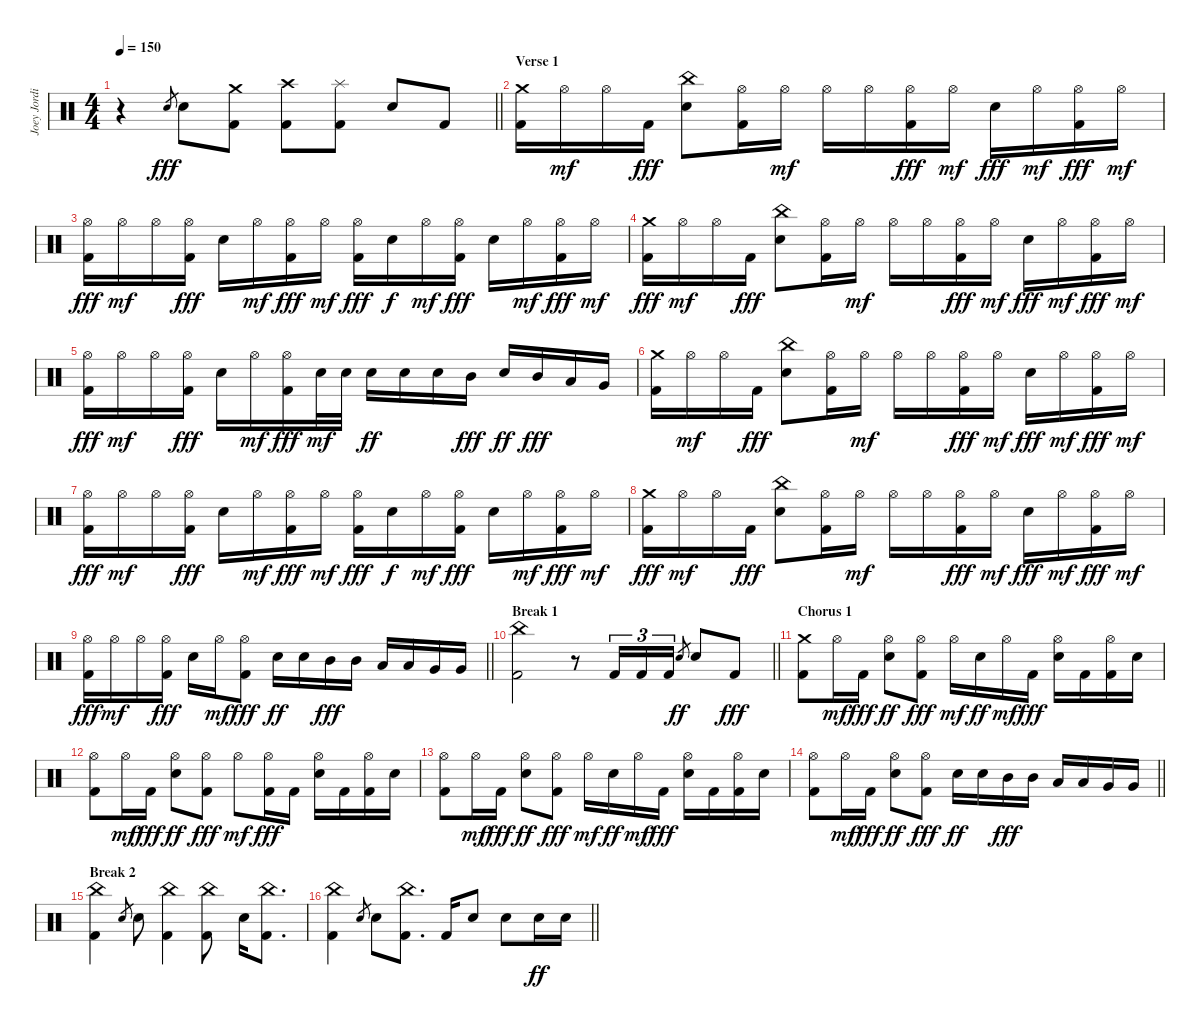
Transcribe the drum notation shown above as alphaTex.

\track ("Joey Jordison" "Joey Jordi") {instrument percussion}
\staff {score}
\articulation defaults
\ts (4 4)
\tempo 150
\clef neutral
\barLineRight lightlight
\ks c
r.4{dy fff} "Electric Snare (hit)".8{gr} "Electric Snare (hit)".8 ("Crash medium (hit)" "Kick (hit) 2").8 ("Crash high (hit)" "Kick (hit) 2").8 ("Splash (hit)" "Kick (hit) 2").8 "Electric Snare (hit)".8 "Kick (hit) 2".8 |
\section ("" "Verse 1")
("Crash medium (hit)" "Kick (hit) 2").16 "Hi-Hat (open)".16{dy mf} "Hi-Hat (open)".16 "Kick (hit) 2".16{dy fff} ("China (hit)" "Electric Snare (hit)").8 ("Hi-Hat (open)" "Kick (hit) 2").16 "Hi-Hat (open)".16{dy mf} "Hi-Hat (open)".16 "Hi-Hat (open)".16 ("Hi-Hat (open)" "Kick (hit) 2").16{dy fff} "Hi-Hat (open)".16{dy mf} "Electric Snare (hit)".16{dy fff} "Hi-Hat (open)".16{dy mf} ("Hi-Hat (open)" "Kick (hit) 2").16{dy fff} "Hi-Hat (open)".16{dy mf} |
("Hi-Hat (open)" "Kick (hit) 2").16{dy fff} "Hi-Hat (open)".16{dy mf} "Hi-Hat (open)".16 ("Hi-Hat (open)" "Kick (hit) 2").16{dy fff} "Electric Snare (hit)".16 "Hi-Hat (open)".16{dy mf} ("Hi-Hat (open)" "Kick (hit) 2").16{dy fff} "Hi-Hat (open)".16{dy mf} ("Hi-Hat (open)" "Kick (hit) 2").16{dy fff} "Electric Snare (hit)".16{dy f} "Hi-Hat (open)".16{dy mf} ("Hi-Hat (open)" "Kick (hit) 2").16{dy fff} "Electric Snare (hit)".16 "Hi-Hat (open)".16{dy mf} ("Hi-Hat (open)" "Kick (hit) 2").16{dy fff} "Hi-Hat (open)".16{dy mf} |
("Crash medium (hit)" "Kick (hit) 2").16{dy fff} "Hi-Hat (open)".16{dy mf} "Hi-Hat (open)".16 "Kick (hit) 2".16{dy fff} ("China (hit)" "Electric Snare (hit)").8 ("Hi-Hat (open)" "Kick (hit) 2").16 "Hi-Hat (open)".16{dy mf} "Hi-Hat (open)".16 "Hi-Hat (open)".16 ("Hi-Hat (open)" "Kick (hit) 2").16{dy fff} "Hi-Hat (open)".16{dy mf} "Electric Snare (hit)".16{dy fff} "Hi-Hat (open)".16{dy mf} ("Hi-Hat (open)" "Kick (hit) 2").16{dy fff} "Hi-Hat (open)".16{dy mf} |
("Hi-Hat (open)" "Kick (hit) 2").16{dy fff} "Hi-Hat (open)".16{dy mf} "Hi-Hat (open)".16 ("Hi-Hat (open)" "Kick (hit) 2").16{dy fff} "Electric Snare (hit)".16 "Hi-Hat (open)".16{dy mf} ("Hi-Hat (open)" "Kick (hit) 2").16{dy fff} "Electric Snare (hit)".32{dy mf} "Electric Snare (hit)".32 "Electric Snare (hit)".16{dy ff} "Electric Snare (hit)".16 "Electric Snare (hit)".16 "Mid Tom (hit)".16{dy fff} "Electric Snare (hit)".16{dy ff} "Mid Tom (hit)".16{dy fff} "Low Tom (hit)".16 "Very Low Tom (hit)".16 |
("Crash medium (hit)" "Kick (hit) 2").16 "Hi-Hat (open)".16{dy mf} "Hi-Hat (open)".16 "Kick (hit) 2".16{dy fff} ("China (hit)" "Electric Snare (hit)").8 ("Hi-Hat (open)" "Kick (hit) 2").16 "Hi-Hat (open)".16{dy mf} "Hi-Hat (open)".16 "Hi-Hat (open)".16 ("Hi-Hat (open)" "Kick (hit) 2").16{dy fff} "Hi-Hat (open)".16{dy mf} "Electric Snare (hit)".16{dy fff} "Hi-Hat (open)".16{dy mf} ("Hi-Hat (open)" "Kick (hit) 2").16{dy fff} "Hi-Hat (open)".16{dy mf} |
("Hi-Hat (open)" "Kick (hit) 2").16{dy fff} "Hi-Hat (open)".16{dy mf} "Hi-Hat (open)".16 ("Hi-Hat (open)" "Kick (hit) 2").16{dy fff} "Electric Snare (hit)".16 "Hi-Hat (open)".16{dy mf} ("Hi-Hat (open)" "Kick (hit) 2").16{dy fff} "Hi-Hat (open)".16{dy mf} ("Hi-Hat (open)" "Kick (hit) 2").16{dy fff} "Electric Snare (hit)".16{dy f} "Hi-Hat (open)".16{dy mf} ("Hi-Hat (open)" "Kick (hit) 2").16{dy fff} "Electric Snare (hit)".16 "Hi-Hat (open)".16{dy mf} ("Hi-Hat (open)" "Kick (hit) 2").16{dy fff} "Hi-Hat (open)".16{dy mf} |
("Crash medium (hit)" "Kick (hit) 2").16{dy fff} "Hi-Hat (open)".16{dy mf} "Hi-Hat (open)".16 "Kick (hit) 2".16{dy fff} ("China (hit)" "Electric Snare (hit)").8 ("Hi-Hat (open)" "Kick (hit) 2").16 "Hi-Hat (open)".16{dy mf} "Hi-Hat (open)".16 "Hi-Hat (open)".16 ("Hi-Hat (open)" "Kick (hit) 2").16{dy fff} "Hi-Hat (open)".16{dy mf} "Electric Snare (hit)".16{dy fff} "Hi-Hat (open)".16{dy mf} ("Hi-Hat (open)" "Kick (hit) 2").16{dy fff} "Hi-Hat (open)".16{dy mf} |
\barLineRight lightlight
("Hi-Hat (open)" "Kick (hit) 2").16{dy fff} "Hi-Hat (open)".16{dy mf} "Hi-Hat (open)".16 ("Hi-Hat (open)" "Kick (hit) 2").16{dy fff} "Electric Snare (hit)".16 "Hi-Hat (open)".16{dy mf} ("Hi-Hat (open)" "Kick (hit) 2").8{dy fff} "Electric Snare (hit)".16{dy ff} "Electric Snare (hit)".16 "Mid Tom (hit)".16{dy fff} "Mid Tom (hit)".16 "Low Tom (hit)".16 "Low Tom (hit)".16 "Very Low Tom (hit)".16 "Very Low Tom (hit)".16 |
\section ("" "Break 1")
\barLineRight lightlight
("China (hit)" "Kick (hit) 2").2 r.8 "Kick (hit) 2".16{tu (3 2)} "Kick (hit) 2".16{tu (3 2)} "Kick (hit) 2".16{tu (3 2)} "Electric Snare (hit)".8{gr dy ff} "Electric Snare (hit)".8 "Kick (hit) 2".8{dy fff} |
\section ("" "Chorus 1")
("Crash medium (hit)" "Kick (hit) 2").8 "Hi-Hat (open)".16{dy mf} "Kick (hit) 2".16{dy fff} ("Hi-Hat (open)" "Electric Snare (hit)").8{dy ff} ("Hi-Hat (open)" "Kick (hit) 2").8{dy fff} "Hi-Hat (open)".16{dy mf} "Electric Snare (hit)".16{dy ff} "Hi-Hat (open)".16{dy mf} "Kick (hit) 2".16{dy fff} ("Hi-Hat (open)" "Electric Snare (hit)").16 "Kick (hit) 2".16 ("Hi-Hat (open)" "Kick (hit) 2").16 "Electric Snare (hit)".16 |
("Hi-Hat (open)" "Kick (hit) 2").8 "Hi-Hat (open)".16{dy mf} "Kick (hit) 2".16{dy fff} ("Hi-Hat (open)" "Electric Snare (hit)").8{dy ff} ("Hi-Hat (open)" "Kick (hit) 2").8{dy fff} "Hi-Hat (open)".8{dy mf} ("Hi-Hat (open)" "Kick (hit) 2").16{dy fff} "Kick (hit) 2".16 ("Hi-Hat (open)" "Electric Snare (hit)").16 "Kick (hit) 2".16 ("Hi-Hat (open)" "Kick (hit) 2").16 "Electric Snare (hit)".16 |
("Hi-Hat (open)" "Kick (hit) 2").8 "Hi-Hat (open)".16{dy mf} "Kick (hit) 2".16{dy fff} ("Hi-Hat (open)" "Electric Snare (hit)").8{dy ff} ("Hi-Hat (open)" "Kick (hit) 2").8{dy fff} "Hi-Hat (open)".16{dy mf} "Electric Snare (hit)".16{dy ff} "Hi-Hat (open)".16{dy mf} "Kick (hit) 2".16{dy fff} ("Hi-Hat (open)" "Electric Snare (hit)").16 "Kick (hit) 2".16 ("Hi-Hat (open)" "Kick (hit) 2").16 "Electric Snare (hit)".16 |
\barLineRight lightlight
("Hi-Hat (open)" "Kick (hit) 2").8 "Hi-Hat (open)".16{dy mf} "Kick (hit) 2".16{dy fff} ("Hi-Hat (open)" "Electric Snare (hit)").8{dy ff} ("Hi-Hat (open)" "Kick (hit) 2").8{dy fff} "Electric Snare (hit)".16{dy ff} "Electric Snare (hit)".16 "Mid Tom (hit)".16{dy fff} "Mid Tom (hit)".16 "Low Tom (hit)".16 "Low Tom (hit)".16 "Very Low Tom (hit)".16 "Very Low Tom (hit)".16 |
\section ("" "Break 2")
("China (hit)" "Kick (hit) 2").4 "Electric Snare (hit)".8{gr} "Electric Snare (hit)".8 ("China (hit)" "Kick (hit) 2").4 ("China (hit)" "Kick (hit) 2").8 "Electric Snare (hit)".16 ("China (hit)" "Kick (hit) 2").8{d} |
\barLineRight lightlight
("China (hit)" "Kick (hit) 2").4 "Electric Snare (hit)".8{gr} "Electric Snare (hit)".8 ("China (hit)" "Kick (hit) 2").8{d} "Kick (hit) 2".16 "Electric Snare (hit)".8 "Electric Snare (hit)".8 "Electric Snare (hit)".16{dy ff} "Electric Snare (hit)".16
